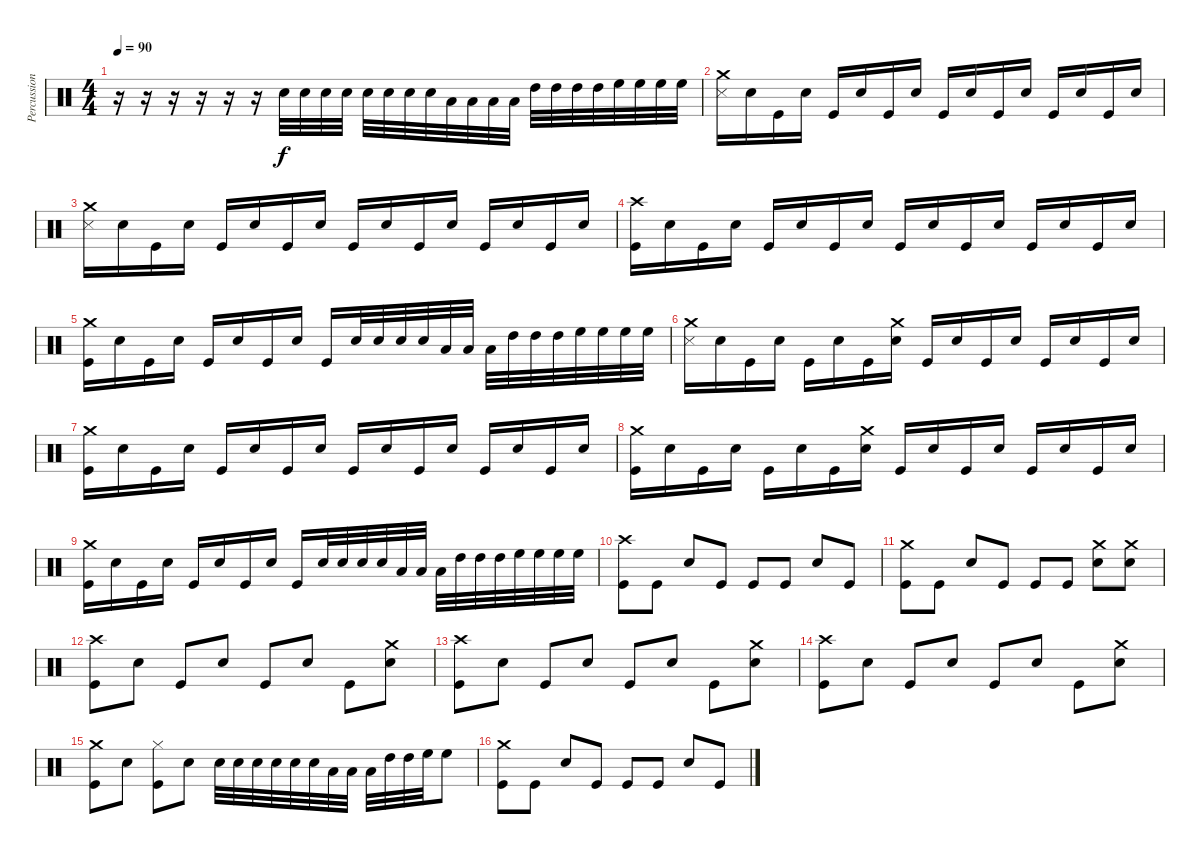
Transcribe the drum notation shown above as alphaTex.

\track ("Percussion" "Percussion") {instrument percussion}
\staff {score}
\articulation defaults
\ts (4 4)
\tempo 90
\clef neutral
\ks c
r.16{dy f} r.16 r.16 r.16 r.16 r.16 "Snare (hit) 2".32 "Snare (hit) 2".32 "Snare (hit) 2".32 "Snare (hit) 2".32 "Electric Snare (hit)".32 "Electric Snare (hit)".32 "Electric Snare (hit)".32 "Electric Snare (hit)".32 "Low Tom (hit)".32 "Low Tom (hit)".32 "Low Tom (hit)".32 "Low Tom (hit)".32 "High Tom (hit)".32 "High Tom (hit)".32 "High Tom (hit)".32 "High Tom (hit)".32 "High Floor Tom (hit)".32 "High Floor Tom (hit)".32 "High Floor Tom (hit)".32 "High Floor Tom (hit)".32 |
("Crash medium (hit)" "Metronome (hit)").16 "Electric Snare (hit)".16 "Kick (hit)".16 "Electric Snare (hit)".16 "Kick (hit)".16 "Electric Snare (hit)".16 "Kick (hit)".16 "Electric Snare (hit)".16 "Kick (hit)".16 "Electric Snare (hit)".16 "Kick (hit)".16 "Electric Snare (hit)".16 "Kick (hit)".16 "Electric Snare (hit)".16 "Kick (hit)".16 "Electric Snare (hit)".16 |
("Crash medium (hit)" "Metronome (hit)").16 "Electric Snare (hit)".16 "Kick (hit)".16 "Electric Snare (hit)".16 "Kick (hit)".16 "Electric Snare (hit)".16 "Kick (hit)".16 "Electric Snare (hit)".16 "Kick (hit)".16 "Electric Snare (hit)".16 "Kick (hit)".16 "Electric Snare (hit)".16 "Kick (hit)".16 "Electric Snare (hit)".16 "Kick (hit)".16 "Electric Snare (hit)".16 |
("Kick (hit)" "Crash high (hit)").16 "Electric Snare (hit)".16 "Kick (hit)".16 "Electric Snare (hit)".16 "Kick (hit)".16 "Electric Snare (hit)".16 "Kick (hit)".16 "Electric Snare (hit)".16 "Kick (hit)".16 "Electric Snare (hit)".16 "Kick (hit)".16 "Electric Snare (hit)".16 "Kick (hit)".16 "Electric Snare (hit)".16 "Kick (hit)".16 "Electric Snare (hit)".16 |
("Crash medium (hit)" "Kick (hit)").16 "Electric Snare (hit)".16 "Kick (hit)".16 "Electric Snare (hit)".16 "Kick (hit)".16 "Electric Snare (hit)".16 "Kick (hit)".16 "Electric Snare (hit)".16 "Kick (hit)".16 "Snare (hit) 2".32 "Snare (hit) 2".32 "Electric Snare (hit)".32 "Electric Snare (hit)".32 "Low Tom (hit)".32 "Low Tom (hit)".32 "Low Tom (hit)".32 "High Tom (hit)".32 "High Tom (hit)".32 "High Tom (hit)".32 "High Floor Tom (hit)".32 "High Floor Tom (hit)".32 "High Floor Tom (hit)".32 "High Floor Tom (hit)".32 |
("Crash medium (hit)" "Metronome (hit)").16 "Electric Snare (hit)".16 "Kick (hit)".16 "Electric Snare (hit)".16 "Kick (hit)".16 "Electric Snare (hit)".16 "Kick (hit)".16 ("Crash medium (hit)" "Electric Snare (hit)").16 "Kick (hit)".16 "Electric Snare (hit)".16 "Kick (hit)".16 "Electric Snare (hit)".16 "Kick (hit)".16 "Electric Snare (hit)".16 "Kick (hit)".16 "Electric Snare (hit)".16 |
("Crash medium (hit)" "Kick (hit)").16 "Electric Snare (hit)".16 "Kick (hit)".16 "Electric Snare (hit)".16 "Kick (hit)".16 "Electric Snare (hit)".16 "Kick (hit)".16 "Electric Snare (hit)".16 "Kick (hit)".16 "Electric Snare (hit)".16 "Kick (hit)".16 "Electric Snare (hit)".16 "Kick (hit)".16 "Electric Snare (hit)".16 "Kick (hit)".16 "Electric Snare (hit)".16 |
("Crash medium (hit)" "Kick (hit)").16 "Electric Snare (hit)".16 "Kick (hit)".16 "Electric Snare (hit)".16 "Kick (hit)".16 "Electric Snare (hit)".16 "Kick (hit)".16 ("Crash medium (hit)" "Electric Snare (hit)").16 "Kick (hit)".16 "Electric Snare (hit)".16 "Kick (hit)".16 "Electric Snare (hit)".16 "Kick (hit)".16 "Electric Snare (hit)".16 "Kick (hit)".16 "Electric Snare (hit)".16 |
("Crash medium (hit)" "Kick (hit)").16 "Electric Snare (hit)".16 "Kick (hit)".16 "Electric Snare (hit)".16 "Kick (hit)".16 "Electric Snare (hit)".16 "Kick (hit)".16 "Electric Snare (hit)".16 "Kick (hit)".16 "Snare (hit) 2".32 "Snare (hit) 2".32 "Electric Snare (hit)".32 "Electric Snare (hit)".32 "Low Tom (hit)".32 "Low Tom (hit)".32 "Low Tom (hit)".32 "High Tom (hit)".32 "High Tom (hit)".32 "High Tom (hit)".32 "High Floor Tom (hit)".32 "High Floor Tom (hit)".32 "High Floor Tom (hit)".32 "High Floor Tom (hit)".32 |
("Kick (hit)" "Crash high (hit)").8 "Kick (hit)".8 "Electric Snare (hit)".8 "Kick (hit)".8 "Kick (hit)".8 "Kick (hit)".8 "Electric Snare (hit)".8 "Kick (hit)".8 |
("Kick (hit)" "Crash medium (hit)").8 "Kick (hit)".8 "Electric Snare (hit)".8 "Kick (hit)".8 "Kick (hit)".8 "Kick (hit)".8 ("Crash medium (hit)" "Electric Snare (hit)").8 ("Crash medium (hit)" "Electric Snare (hit)").8 |
("Crash high (hit)" "Kick (hit)").8 "Electric Snare (hit)".8 "Kick (hit)".8 "Electric Snare (hit)".8 "Kick (hit)".8 "Electric Snare (hit)".8 "Kick (hit)".8 ("Crash medium (hit)" "Electric Snare (hit)").8 |
("Crash high (hit)" "Kick (hit)").8 "Electric Snare (hit)".8 "Kick (hit)".8 "Electric Snare (hit)".8 "Kick (hit)".8 "Electric Snare (hit)".8 "Kick (hit)".8 ("Crash medium (hit)" "Electric Snare (hit)").8 |
("Crash high (hit)" "Kick (hit)").8 "Electric Snare (hit)".8 "Kick (hit)".8 "Electric Snare (hit)".8 "Kick (hit)".8 "Electric Snare (hit)".8 "Kick (hit)".8 ("Crash medium (hit)" "Electric Snare (hit)").8 |
("Kick (hit)" "Crash medium (hit)").8 "Electric Snare (hit)".8 ("Hi-Hat (closed)" "Kick (hit)").8 "Electric Snare (hit)".8 "Electric Snare (hit)".32 "Electric Snare (hit)".32 "Electric Snare (hit)".32 "Snare (hit) 2".32 "Snare (hit) 2".32 "Snare (hit) 2".32 "Low Tom (hit)".32 "Low Tom (hit)".32 "Low Tom (hit)".32 "High Tom (hit)".32 "High Tom (hit)".32 "High Floor Tom (hit)".32 "High Floor Tom (hit)".8 |
("Kick (hit)" "Crash medium (hit)").8 "Kick (hit)".8 "Electric Snare (hit)".8 "Kick (hit)".8 "Kick (hit)".8 "Kick (hit)".8 "Electric Snare (hit)".8 "Kick (hit)".8
